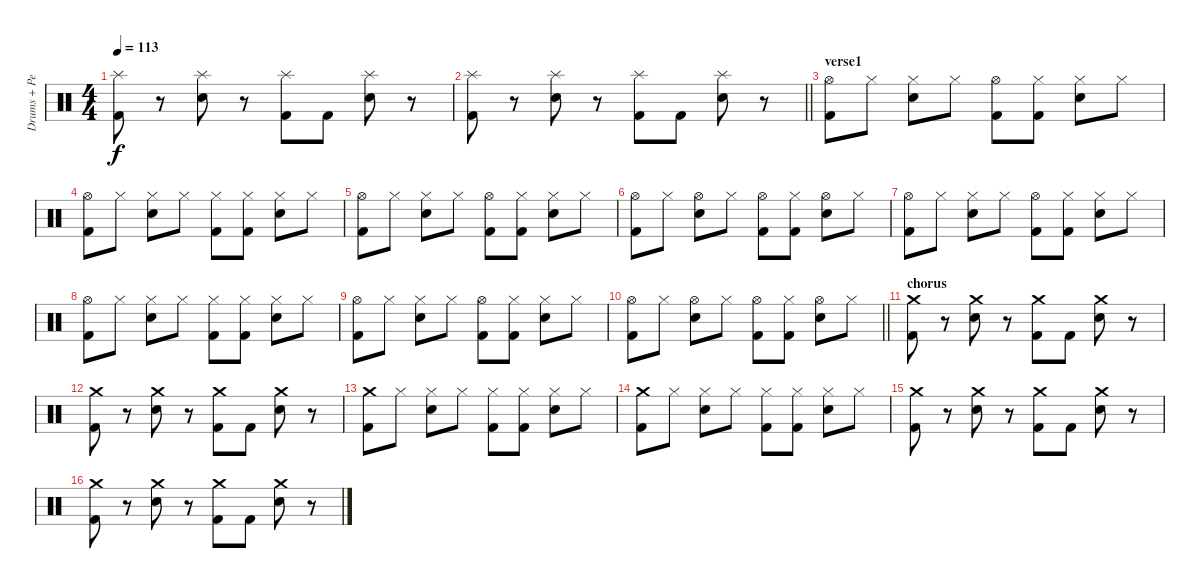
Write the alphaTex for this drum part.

\track ("Drums + Percussion" "Drums + Pe") {instrument percussion}
\staff {score}
\articulation defaults
\ts (4 4)
\tempo 113
\clef neutral
\ks c
("Splash (hit)" "Kick (hit) 2").8{dy f} r.8 ("Splash (hit)" "Snare (hit) 2").8 r.8 ("Splash (hit)" "Kick (hit) 2").8 "Kick (hit) 2".8 ("Splash (hit)" "Snare (hit) 2").8 r.8 |
\barLineRight lightlight
("Splash (hit)" "Kick (hit) 2").8 r.8 ("Splash (hit)" "Snare (hit) 2").8 r.8 ("Splash (hit)" "Kick (hit) 2").8 "Kick (hit) 2".8 ("Splash (hit)" "Snare (hit) 2").8 r.8 |
\section ("" "verse1")
("Hi-Hat (open)" "Kick (hit) 2").8 "Hi-Hat (closed)".8 ("Hi-Hat (closed)" "Snare (hit) 2").8 "Hi-Hat (closed)".8 ("Hi-Hat (open)" "Kick (hit) 2").8 ("Hi-Hat (closed)" "Kick (hit) 2").8 ("Hi-Hat (closed)" "Snare (hit) 2").8 "Hi-Hat (closed)".8 |
("Hi-Hat (open)" "Kick (hit) 2").8 "Hi-Hat (closed)".8 ("Hi-Hat (closed)" "Snare (hit) 2").8 "Hi-Hat (closed)".8 ("Hi-Hat (closed)" "Kick (hit) 2").8 ("Hi-Hat (closed)" "Kick (hit) 2").8 ("Hi-Hat (closed)" "Snare (hit) 2").8 "Hi-Hat (closed)".8 |
("Hi-Hat (open)" "Kick (hit) 2").8 "Hi-Hat (closed)".8 ("Hi-Hat (closed)" "Snare (hit) 2").8 "Hi-Hat (closed)".8 ("Hi-Hat (open)" "Kick (hit) 2").8 ("Hi-Hat (closed)" "Kick (hit) 2").8 ("Hi-Hat (closed)" "Snare (hit) 2").8 "Hi-Hat (closed)".8 |
("Hi-Hat (open)" "Kick (hit) 2").8 "Hi-Hat (closed)".8 ("Hi-Hat (open)" "Snare (hit) 2").8 "Hi-Hat (closed)".8 ("Hi-Hat (open)" "Kick (hit) 2").8 ("Hi-Hat (closed)" "Kick (hit) 2").8 ("Hi-Hat (open)" "Snare (hit) 2").8 "Hi-Hat (closed)".8 |
("Hi-Hat (open)" "Kick (hit) 2").8 "Hi-Hat (closed)".8 ("Hi-Hat (closed)" "Snare (hit) 2").8 "Hi-Hat (closed)".8 ("Hi-Hat (open)" "Kick (hit) 2").8 ("Hi-Hat (closed)" "Kick (hit) 2").8 ("Hi-Hat (closed)" "Snare (hit) 2").8 "Hi-Hat (closed)".8 |
("Hi-Hat (open)" "Kick (hit) 2").8 "Hi-Hat (closed)".8 ("Hi-Hat (closed)" "Snare (hit) 2").8 "Hi-Hat (closed)".8 ("Hi-Hat (closed)" "Kick (hit) 2").8 ("Hi-Hat (closed)" "Kick (hit) 2").8 ("Hi-Hat (closed)" "Snare (hit) 2").8 "Hi-Hat (closed)".8 |
("Hi-Hat (open)" "Kick (hit) 2").8 "Hi-Hat (closed)".8 ("Hi-Hat (closed)" "Snare (hit) 2").8 "Hi-Hat (closed)".8 ("Hi-Hat (open)" "Kick (hit) 2").8 ("Hi-Hat (closed)" "Kick (hit) 2").8 ("Hi-Hat (closed)" "Snare (hit) 2").8 "Hi-Hat (closed)".8 |
\barLineRight lightlight
("Hi-Hat (open)" "Kick (hit) 2").8 "Hi-Hat (closed)".8 ("Hi-Hat (open)" "Snare (hit) 2").8 "Hi-Hat (closed)".8 ("Hi-Hat (open)" "Kick (hit) 2").8 ("Hi-Hat (closed)" "Kick (hit) 2").8 ("Hi-Hat (open)" "Snare (hit) 2").8 "Hi-Hat (closed)".8 |
\section ("" "chorus")
("Crash medium (hit)" "Kick (hit) 2").8 r.8 ("Crash medium (hit)" "Snare (hit) 2").8 r.8 ("Crash medium (hit)" "Kick (hit) 2").8 "Kick (hit) 2".8 ("Crash medium (hit)" "Snare (hit) 2").8 r.8 |
("Crash medium (hit)" "Kick (hit) 2").8 r.8 ("Crash medium (hit)" "Snare (hit) 2").8 r.8 ("Crash medium (hit)" "Kick (hit) 2").8 "Kick (hit) 2".8 ("Crash medium (hit)" "Snare (hit) 2").8 r.8 |
("Crash medium (hit)" "Kick (hit) 2").8 "Hi-Hat (closed)".8 ("Hi-Hat (closed)" "Snare (hit) 2").8 "Hi-Hat (closed)".8 ("Hi-Hat (closed)" "Kick (hit) 2").8 ("Hi-Hat (closed)" "Kick (hit) 2").8 ("Hi-Hat (closed)" "Snare (hit) 2").8 "Hi-Hat (closed)".8 |
("Crash medium (hit)" "Kick (hit) 2").8 "Hi-Hat (closed)".8 ("Hi-Hat (closed)" "Snare (hit) 2").8 "Hi-Hat (closed)".8 ("Hi-Hat (closed)" "Kick (hit) 2").8 ("Hi-Hat (closed)" "Kick (hit) 2").8 ("Hi-Hat (closed)" "Snare (hit) 2").8 "Hi-Hat (closed)".8 |
("Crash medium (hit)" "Kick (hit) 2").8 r.8 ("Crash medium (hit)" "Snare (hit) 2").8 r.8 ("Crash medium (hit)" "Kick (hit) 2").8 "Kick (hit) 2".8 ("Crash medium (hit)" "Snare (hit) 2").8 r.8 |
("Crash medium (hit)" "Kick (hit) 2").8 r.8 ("Crash medium (hit)" "Snare (hit) 2").8 r.8 ("Crash medium (hit)" "Kick (hit) 2").8 "Kick (hit) 2".8 ("Crash medium (hit)" "Snare (hit) 2").8 r.8
